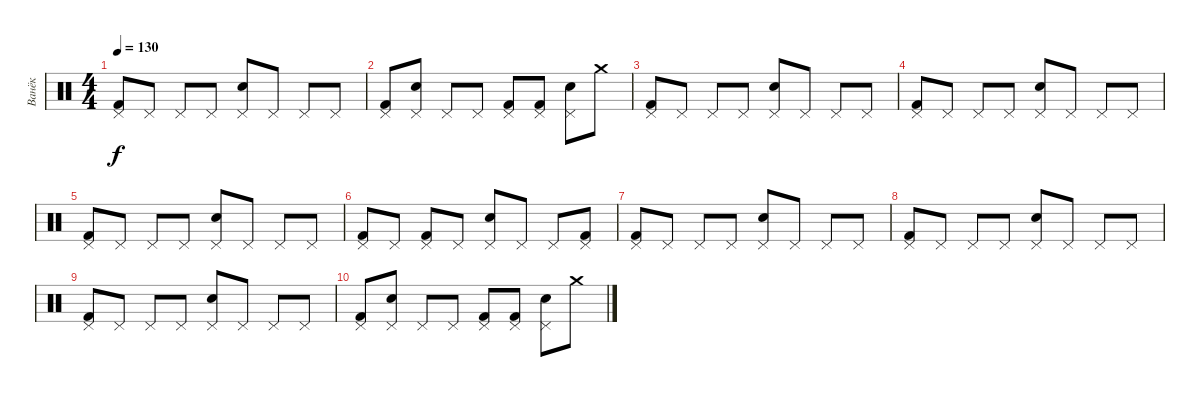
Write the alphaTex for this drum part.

\track ("Ванёк" "Ванёк") {instrument percussion}
\staff {score}
\articulation defaults
\ts (4 4)
\tempo 130
\clef neutral
\ks c
("Pedal Hi-Hat (hit)" "Kick (hit) 2").8{dy f} "Pedal Hi-Hat (hit)".8 "Pedal Hi-Hat (hit)".8 "Pedal Hi-Hat (hit)".8 ("Pedal Hi-Hat (hit)" "Snare (hit) 2").8 "Pedal Hi-Hat (hit)".8 "Pedal Hi-Hat (hit)".8 "Pedal Hi-Hat (hit)".8 |
("Pedal Hi-Hat (hit)" "Kick (hit) 2").8 ("Pedal Hi-Hat (hit)" "Snare (hit) 2").8 "Pedal Hi-Hat (hit)".8 "Pedal Hi-Hat (hit)".8 ("Pedal Hi-Hat (hit)" "Kick (hit) 2").8 ("Pedal Hi-Hat (hit)" "Kick (hit) 2").8 ("Pedal Hi-Hat (hit)" "Snare (hit) 2").8 "Crash medium (hit)".8 |
("Pedal Hi-Hat (hit)" "Kick (hit) 2").8 "Pedal Hi-Hat (hit)".8 "Pedal Hi-Hat (hit)".8 "Pedal Hi-Hat (hit)".8 ("Pedal Hi-Hat (hit)" "Snare (hit) 2").8 "Pedal Hi-Hat (hit)".8 "Pedal Hi-Hat (hit)".8 "Pedal Hi-Hat (hit)".8 |
("Pedal Hi-Hat (hit)" "Kick (hit) 2").8 "Pedal Hi-Hat (hit)".8 "Pedal Hi-Hat (hit)".8 "Pedal Hi-Hat (hit)".8 ("Pedal Hi-Hat (hit)" "Snare (hit) 2").8 "Pedal Hi-Hat (hit)".8 "Pedal Hi-Hat (hit)".8 "Pedal Hi-Hat (hit)".8 |
("Pedal Hi-Hat (hit)" "Kick (hit) 2").8 "Pedal Hi-Hat (hit)".8 "Pedal Hi-Hat (hit)".8 "Pedal Hi-Hat (hit)".8 ("Pedal Hi-Hat (hit)" "Snare (hit) 2").8 "Pedal Hi-Hat (hit)".8 "Pedal Hi-Hat (hit)".8 "Pedal Hi-Hat (hit)".8 |
("Pedal Hi-Hat (hit)" "Kick (hit) 2").8 "Pedal Hi-Hat (hit)".8 ("Pedal Hi-Hat (hit)" "Kick (hit) 2").8 "Pedal Hi-Hat (hit)".8 ("Pedal Hi-Hat (hit)" "Snare (hit) 2").8 "Pedal Hi-Hat (hit)".8 "Pedal Hi-Hat (hit)".8 ("Pedal Hi-Hat (hit)" "Kick (hit) 2").8 |
("Pedal Hi-Hat (hit)" "Kick (hit) 2").8 "Pedal Hi-Hat (hit)".8 "Pedal Hi-Hat (hit)".8 "Pedal Hi-Hat (hit)".8 ("Pedal Hi-Hat (hit)" "Snare (hit) 2").8 "Pedal Hi-Hat (hit)".8 "Pedal Hi-Hat (hit)".8 "Pedal Hi-Hat (hit)".8 |
("Pedal Hi-Hat (hit)" "Kick (hit) 2").8 "Pedal Hi-Hat (hit)".8 "Pedal Hi-Hat (hit)".8 "Pedal Hi-Hat (hit)".8 ("Pedal Hi-Hat (hit)" "Snare (hit) 2").8 "Pedal Hi-Hat (hit)".8 "Pedal Hi-Hat (hit)".8 "Pedal Hi-Hat (hit)".8 |
("Pedal Hi-Hat (hit)" "Kick (hit) 2").8 "Pedal Hi-Hat (hit)".8 "Pedal Hi-Hat (hit)".8 "Pedal Hi-Hat (hit)".8 ("Pedal Hi-Hat (hit)" "Snare (hit) 2").8 "Pedal Hi-Hat (hit)".8 "Pedal Hi-Hat (hit)".8 "Pedal Hi-Hat (hit)".8 |
("Pedal Hi-Hat (hit)" "Kick (hit) 2").8 ("Pedal Hi-Hat (hit)" "Snare (hit) 2").8 "Pedal Hi-Hat (hit)".8 "Pedal Hi-Hat (hit)".8 ("Pedal Hi-Hat (hit)" "Kick (hit) 2").8 ("Pedal Hi-Hat (hit)" "Kick (hit) 2").8 ("Pedal Hi-Hat (hit)" "Snare (hit) 2").8 "Crash medium (hit)".8
